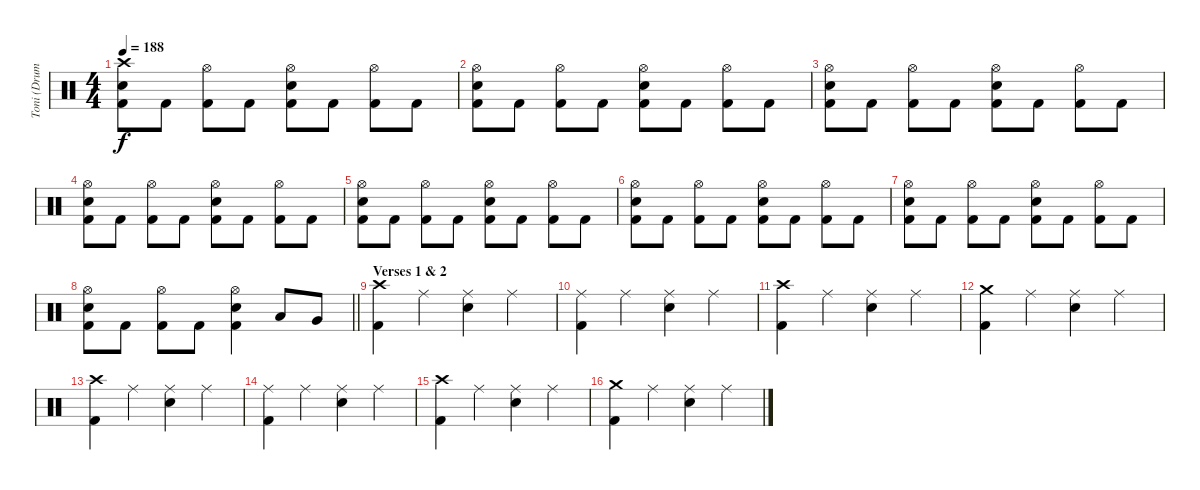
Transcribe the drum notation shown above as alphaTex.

\track ("Toni (Drums)" "Toni (Drum") {instrument percussion}
\staff {score}
\articulation defaults
\ts (4 4)
\tempo 188
\clef neutral
\ks c
("Crash high (hit)" "Electric Snare (hit)" "Kick (hit) 2").8{dy f} "Kick (hit) 2".8 ("Hi-Hat (open)" "Kick (hit) 2").8 "Kick (hit) 2".8 ("Hi-Hat (open)" "Electric Snare (hit)" "Kick (hit) 2").8 "Kick (hit) 2".8 ("Hi-Hat (open)" "Kick (hit) 2").8 "Kick (hit) 2".8 |
("Hi-Hat (open)" "Electric Snare (hit)" "Kick (hit) 2").8 "Kick (hit) 2".8 ("Hi-Hat (open)" "Kick (hit) 2").8 "Kick (hit) 2".8 ("Hi-Hat (open)" "Electric Snare (hit)" "Kick (hit) 2").8 "Kick (hit) 2".8 ("Hi-Hat (open)" "Kick (hit) 2").8 "Kick (hit) 2".8 |
("Hi-Hat (open)" "Electric Snare (hit)" "Kick (hit) 2").8 "Kick (hit) 2".8 ("Hi-Hat (open)" "Kick (hit) 2").8 "Kick (hit) 2".8 ("Hi-Hat (open)" "Electric Snare (hit)" "Kick (hit) 2").8 "Kick (hit) 2".8 ("Hi-Hat (open)" "Kick (hit) 2").8 "Kick (hit) 2".8 |
("Hi-Hat (open)" "Electric Snare (hit)" "Kick (hit) 2").8 "Kick (hit) 2".8 ("Hi-Hat (open)" "Kick (hit) 2").8 "Kick (hit) 2".8 ("Hi-Hat (open)" "Electric Snare (hit)" "Kick (hit) 2").8 "Kick (hit) 2".8 ("Hi-Hat (open)" "Kick (hit) 2").8 "Kick (hit) 2".8 |
("Hi-Hat (open)" "Electric Snare (hit)" "Kick (hit) 2").8 "Kick (hit) 2".8 ("Hi-Hat (open)" "Kick (hit) 2").8 "Kick (hit) 2".8 ("Hi-Hat (open)" "Electric Snare (hit)" "Kick (hit) 2").8 "Kick (hit) 2".8 ("Hi-Hat (open)" "Kick (hit) 2").8 "Kick (hit) 2".8 |
("Hi-Hat (open)" "Electric Snare (hit)" "Kick (hit) 2").8 "Kick (hit) 2".8 ("Hi-Hat (open)" "Kick (hit) 2").8 "Kick (hit) 2".8 ("Hi-Hat (open)" "Electric Snare (hit)" "Kick (hit) 2").8 "Kick (hit) 2".8 ("Hi-Hat (open)" "Kick (hit) 2").8 "Kick (hit) 2".8 |
("Hi-Hat (open)" "Electric Snare (hit)" "Kick (hit) 2").8 "Kick (hit) 2".8 ("Hi-Hat (open)" "Kick (hit) 2").8 "Kick (hit) 2".8 ("Hi-Hat (open)" "Electric Snare (hit)" "Kick (hit) 2").8 "Kick (hit) 2".8 ("Hi-Hat (open)" "Kick (hit) 2").8 "Kick (hit) 2".8 |
\barLineRight lightlight
("Hi-Hat (open)" "Electric Snare (hit)" "Kick (hit) 2").8 "Kick (hit) 2".8 ("Hi-Hat (open)" "Kick (hit) 2").8 "Kick (hit) 2".8 ("Hi-Hat (open)" "Electric Snare (hit)" "Kick (hit) 2").4 "Low Tom (hit)".8 "Very Low Tom (hit)".8 |
\section ("" "Verses 1 & 2")
("Crash high (hit)" "Kick (hit) 2").4 "Ride (middle)".4 ("Ride (middle)" "Electric Snare (hit)").4 "Ride (middle)".4 |
("Ride (middle)" "Kick (hit) 2").4 "Ride (middle)".4 ("Ride (middle)" "Electric Snare (hit)").4 "Ride (middle)".4 |
("Crash high (hit)" "Kick (hit) 2").4 "Ride (middle)".4 ("Ride (middle)" "Electric Snare (hit)").4 "Ride (middle)".4 |
("Crash medium (hit)" "Kick (hit) 2").4 "Ride (middle)".4 ("Ride (middle)" "Electric Snare (hit)").4 "Ride (middle)".4 |
("Crash high (hit)" "Kick (hit) 2").4 "Ride (middle)".4 ("Ride (middle)" "Electric Snare (hit)").4 "Ride (middle)".4 |
("Ride (middle)" "Kick (hit) 2").4 "Ride (middle)".4 ("Ride (middle)" "Electric Snare (hit)").4 "Ride (middle)".4 |
("Crash high (hit)" "Kick (hit) 2").4 "Ride (middle)".4 ("Ride (middle)" "Electric Snare (hit)").4 "Ride (middle)".4 |
("Crash medium (hit)" "Kick (hit) 2").4 "Ride (middle)".4 ("Ride (middle)" "Electric Snare (hit)").4 "Ride (middle)".4
